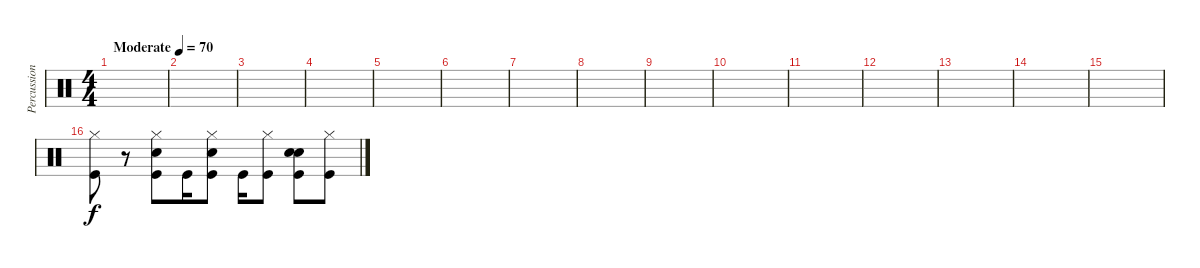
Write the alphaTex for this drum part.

\track ("Percussion" "Percussion") {instrument percussion}
\staff {score}
\articulation defaults
\ts (4 4)
\tempo (70 "Moderate")
\clef neutral
\ks c
|
|
|
|
|
|
|
|
|
|
|
|
|
|
|
("Hi-Hat (closed)" "Kick (hit)").8 r.8 ("Hi-Hat (closed)" "Kick (hit)" "Electric Snare (hit)").8 "Kick (hit)".16 ("Hi-Hat (closed)" "Kick (hit)" "Hand Clap (hit)").8 "Kick (hit)".16 ("Hi-Hat (closed)" "Kick (hit)").8 ("Kick (hit)" "Hand Clap (hit)" "Electric Snare (hit)").8 ("Hi-Hat (closed)" "Kick (hit)").8
